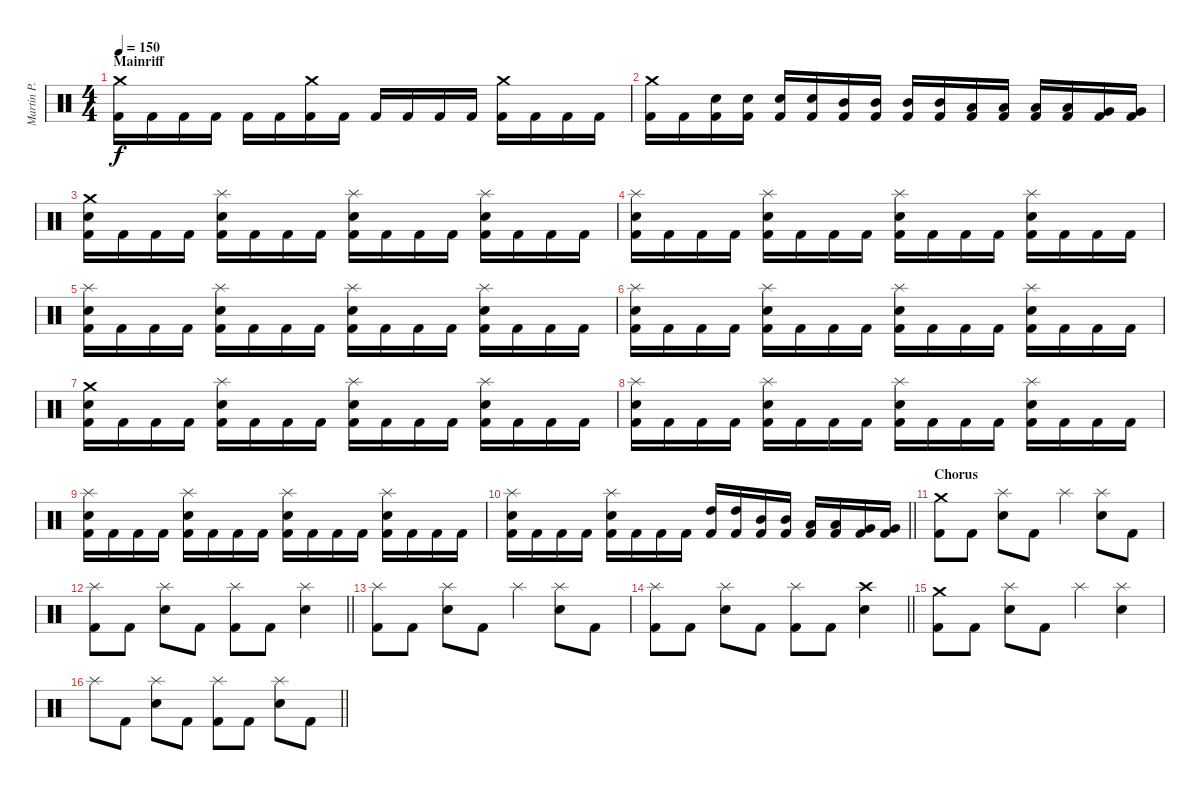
\track ("Martin P." "Martin P.") {instrument percussion}
\staff {score}
\articulation defaults
\ts (4 4)
\section ("" "Mainriff")
\tempo 150
\clef neutral
\ks c
("Crash medium (hit)" "Kick (hit) 2").16{dy f} "Kick (hit) 2".16 "Kick (hit) 2".16 "Kick (hit) 2".16 "Kick (hit) 2".16 "Kick (hit) 2".16 ("Crash medium (hit)" "Kick (hit) 2").16 "Kick (hit) 2".16 "Kick (hit) 2".16 "Kick (hit) 2".16 "Kick (hit) 2".16 "Kick (hit) 2".16 ("Crash medium (hit)" "Kick (hit) 2").16 "Kick (hit) 2".16 "Kick (hit) 2".16 "Kick (hit) 2".16 |
("Crash medium (hit)" "Kick (hit) 2").16 "Kick (hit) 2".16 ("Electric Snare (hit)" "Kick (hit) 2").16 ("Electric Snare (hit)" "Kick (hit) 2").16 ("Electric Snare (hit)" "Kick (hit) 2").16 ("Electric Snare (hit)" "Kick (hit) 2").16 ("Mid Tom (hit)" "Kick (hit) 2").16 ("Mid Tom (hit)" "Kick (hit) 2").16 ("Mid Tom (hit)" "Kick (hit) 2").16 ("Mid Tom (hit)" "Kick (hit) 2").16 ("Low Tom (hit)" "Kick (hit) 2").16 ("Low Tom (hit)" "Kick (hit) 2").16 ("Low Tom (hit)" "Kick (hit) 2").16 ("Low Tom (hit)" "Kick (hit) 2").16 ("Very Low Tom (hit)" "Kick (hit) 2").16 ("Very Low Tom (hit)" "Kick (hit) 2").16 |
("Crash medium (hit)" "Electric Snare (hit)" "Kick (hit) 2").16 "Kick (hit) 2".16 "Kick (hit) 2".16 "Kick (hit) 2".16 ("Splash (hit)" "Electric Snare (hit)" "Kick (hit) 2").16 "Kick (hit) 2".16 "Kick (hit) 2".16 "Kick (hit) 2".16 ("Splash (hit)" "Electric Snare (hit)" "Kick (hit) 2").16 "Kick (hit) 2".16 "Kick (hit) 2".16 "Kick (hit) 2".16 ("Splash (hit)" "Electric Snare (hit)" "Kick (hit) 2").16 "Kick (hit) 2".16 "Kick (hit) 2".16 "Kick (hit) 2".16 |
("Splash (hit)" "Electric Snare (hit)" "Kick (hit) 2").16 "Kick (hit) 2".16 "Kick (hit) 2".16 "Kick (hit) 2".16 ("Splash (hit)" "Electric Snare (hit)" "Kick (hit) 2").16 "Kick (hit) 2".16 "Kick (hit) 2".16 "Kick (hit) 2".16 ("Splash (hit)" "Electric Snare (hit)" "Kick (hit) 2").16 "Kick (hit) 2".16 "Kick (hit) 2".16 "Kick (hit) 2".16 ("Splash (hit)" "Electric Snare (hit)" "Kick (hit) 2").16 "Kick (hit) 2".16 "Kick (hit) 2".16 "Kick (hit) 2".16 |
("Splash (hit)" "Electric Snare (hit)" "Kick (hit) 2").16 "Kick (hit) 2".16 "Kick (hit) 2".16 "Kick (hit) 2".16 ("Splash (hit)" "Electric Snare (hit)" "Kick (hit) 2").16 "Kick (hit) 2".16 "Kick (hit) 2".16 "Kick (hit) 2".16 ("Splash (hit)" "Electric Snare (hit)" "Kick (hit) 2").16 "Kick (hit) 2".16 "Kick (hit) 2".16 "Kick (hit) 2".16 ("Splash (hit)" "Electric Snare (hit)" "Kick (hit) 2").16 "Kick (hit) 2".16 "Kick (hit) 2".16 "Kick (hit) 2".16 |
("Splash (hit)" "Electric Snare (hit)" "Kick (hit) 2").16 "Kick (hit) 2".16 "Kick (hit) 2".16 "Kick (hit) 2".16 ("Splash (hit)" "Electric Snare (hit)" "Kick (hit) 2").16 "Kick (hit) 2".16 "Kick (hit) 2".16 "Kick (hit) 2".16 ("Splash (hit)" "Electric Snare (hit)" "Kick (hit) 2").16 "Kick (hit) 2".16 "Kick (hit) 2".16 "Kick (hit) 2".16 ("Splash (hit)" "Electric Snare (hit)" "Kick (hit) 2").16 "Kick (hit) 2".16 "Kick (hit) 2".16 "Kick (hit) 2".16 |
("Crash medium (hit)" "Electric Snare (hit)" "Kick (hit) 2").16 "Kick (hit) 2".16 "Kick (hit) 2".16 "Kick (hit) 2".16 ("Splash (hit)" "Electric Snare (hit)" "Kick (hit) 2").16 "Kick (hit) 2".16 "Kick (hit) 2".16 "Kick (hit) 2".16 ("Splash (hit)" "Electric Snare (hit)" "Kick (hit) 2").16 "Kick (hit) 2".16 "Kick (hit) 2".16 "Kick (hit) 2".16 ("Splash (hit)" "Electric Snare (hit)" "Kick (hit) 2").16 "Kick (hit) 2".16 "Kick (hit) 2".16 "Kick (hit) 2".16 |
("Splash (hit)" "Electric Snare (hit)" "Kick (hit) 2").16 "Kick (hit) 2".16 "Kick (hit) 2".16 "Kick (hit) 2".16 ("Splash (hit)" "Electric Snare (hit)" "Kick (hit) 2").16 "Kick (hit) 2".16 "Kick (hit) 2".16 "Kick (hit) 2".16 ("Splash (hit)" "Electric Snare (hit)" "Kick (hit) 2").16 "Kick (hit) 2".16 "Kick (hit) 2".16 "Kick (hit) 2".16 ("Splash (hit)" "Electric Snare (hit)" "Kick (hit) 2").16 "Kick (hit) 2".16 "Kick (hit) 2".16 "Kick (hit) 2".16 |
("Splash (hit)" "Electric Snare (hit)" "Kick (hit) 2").16 "Kick (hit) 2".16 "Kick (hit) 2".16 "Kick (hit) 2".16 ("Splash (hit)" "Electric Snare (hit)" "Kick (hit) 2").16 "Kick (hit) 2".16 "Kick (hit) 2".16 "Kick (hit) 2".16 ("Splash (hit)" "Electric Snare (hit)" "Kick (hit) 2").16 "Kick (hit) 2".16 "Kick (hit) 2".16 "Kick (hit) 2".16 ("Splash (hit)" "Electric Snare (hit)" "Kick (hit) 2").16 "Kick (hit) 2".16 "Kick (hit) 2".16 "Kick (hit) 2".16 |
\barLineRight lightlight
("Splash (hit)" "Electric Snare (hit)" "Kick (hit) 2").16 "Kick (hit) 2".16 "Kick (hit) 2".16 "Kick (hit) 2".16 ("Splash (hit)" "Electric Snare (hit)" "Kick (hit) 2").16 "Kick (hit) 2".16 "Kick (hit) 2".16 "Kick (hit) 2".16 ("High Tom (hit)" "Kick (hit) 2").16 ("High Tom (hit)" "Kick (hit) 2").16 ("Mid Tom (hit)" "Kick (hit) 2").16 ("Mid Tom (hit)" "Kick (hit) 2").16 ("Low Tom (hit)" "Kick (hit) 2").16 ("Low Tom (hit)" "Kick (hit) 2").16 ("Very Low Tom (hit)" "Kick (hit) 2").16 ("Very Low Tom (hit)" "Kick (hit) 2").16 |
\section ("" "Chorus")
("Kick (hit) 2" "Crash medium (hit)").8 "Kick (hit) 2".8 ("Electric Snare (hit)" "Splash (hit)").8 "Kick (hit) 2".8 "Splash (hit)".4 ("Electric Snare (hit)" "Splash (hit)").8 "Kick (hit) 2".8 |
\barLineRight lightlight
("Kick (hit) 2" "Splash (hit)").8 "Kick (hit) 2".8 ("Electric Snare (hit)" "Splash (hit)").8 "Kick (hit) 2".8 ("Kick (hit) 2" "Splash (hit)").8 "Kick (hit) 2".8 ("Electric Snare (hit)" "Splash (hit)").4 |
("Splash (hit)" "Kick (hit) 2").8 "Kick (hit) 2".8 ("Electric Snare (hit)" "Splash (hit)").8 "Kick (hit) 2".8 "Splash (hit)".4 ("Electric Snare (hit)" "Splash (hit)").8 "Kick (hit) 2".8 |
\barLineRight lightlight
("Kick (hit) 2" "Splash (hit)").8 "Kick (hit) 2".8 ("Electric Snare (hit)" "Splash (hit)").8 "Kick (hit) 2".8 ("Kick (hit) 2" "Splash (hit)").8 "Kick (hit) 2".8 ("Electric Snare (hit)" "Crash high (hit)").4 |
("Kick (hit) 2" "Crash medium (hit)").8 "Kick (hit) 2".8 ("Electric Snare (hit)" "Splash (hit)").8 "Kick (hit) 2".8 "Splash (hit)".4 ("Electric Snare (hit)" "Splash (hit)").4 |
\barLineRight lightlight "Splash (hit)".8 "Kick (hit) 2".8
("Electric Snare (hit)" "Splash (hit)").8 "Kick (hit) 2".8 ("Kick (hit) 2" "Splash (hit)").8 "Kick (hit) 2".8 ("Electric Snare (hit)" "Splash (hit)").8 "Kick (hit) 2".8
